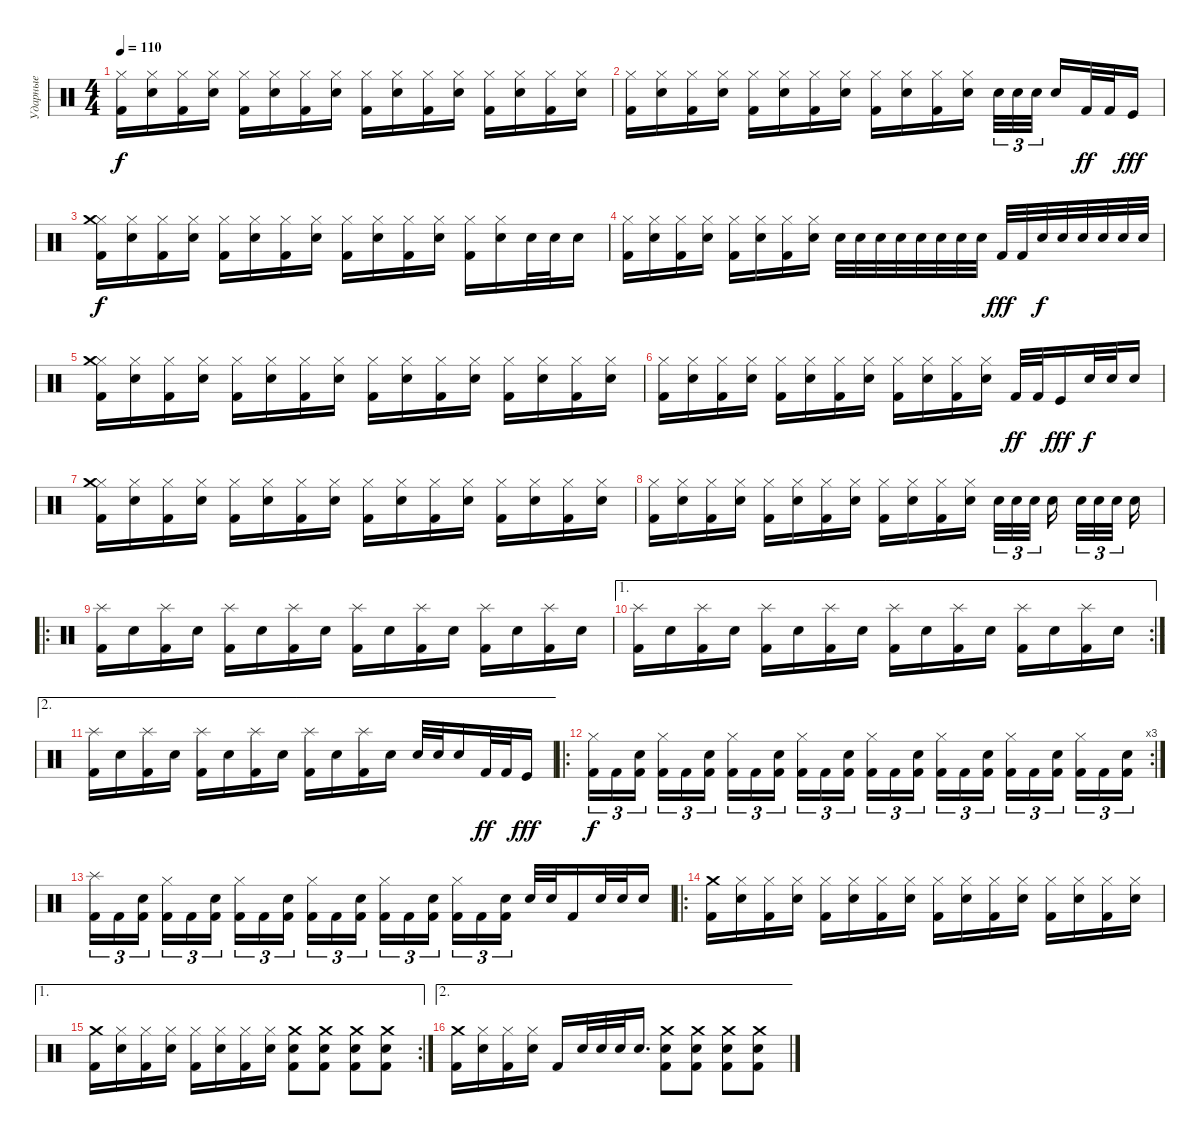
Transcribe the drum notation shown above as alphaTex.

\track ("Ударные" "Ударные") {instrument percussion}
\staff {score}
\articulation defaults
\ts (4 4)
\tempo 110
\clef neutral
\ks c
("Hi-Hat (closed)" "Kick (hit) 2").16{dy f} ("Hi-Hat (closed)" "Electric Snare (hit)").16 ("Hi-Hat (closed)" "Kick (hit) 2").16 ("Hi-Hat (closed)" "Electric Snare (hit)").16 ("Hi-Hat (closed)" "Kick (hit) 2").16 ("Hi-Hat (closed)" "Electric Snare (hit)").16 ("Hi-Hat (closed)" "Kick (hit) 2").16 ("Hi-Hat (closed)" "Electric Snare (hit)").16 ("Hi-Hat (closed)" "Kick (hit) 2").16 ("Hi-Hat (closed)" "Electric Snare (hit)").16 ("Hi-Hat (closed)" "Kick (hit) 2").16 ("Hi-Hat (closed)" "Electric Snare (hit)").16 ("Hi-Hat (closed)" "Kick (hit) 2").16 ("Hi-Hat (closed)" "Electric Snare (hit)").16 ("Hi-Hat (closed)" "Kick (hit) 2").16 ("Hi-Hat (closed)" "Electric Snare (hit)").16 |
("Hi-Hat (closed)" "Kick (hit) 2").16 ("Hi-Hat (closed)" "Electric Snare (hit)").16 ("Hi-Hat (closed)" "Kick (hit) 2").16 ("Hi-Hat (closed)" "Electric Snare (hit)").16 ("Hi-Hat (closed)" "Kick (hit) 2").16 ("Hi-Hat (closed)" "Electric Snare (hit)").16 ("Hi-Hat (closed)" "Kick (hit) 2").16 ("Hi-Hat (closed)" "Electric Snare (hit)").16 ("Hi-Hat (closed)" "Kick (hit) 2").16 ("Hi-Hat (closed)" "Electric Snare (hit)").16 ("Hi-Hat (closed)" "Kick (hit) 2").16 ("Hi-Hat (closed)" "Electric Snare (hit)").16 "Electric Snare (hit)".32{tu (3 2)} "Electric Snare (hit)".32{tu (3 2)} "Electric Snare (hit)".32{tu (3 2) beam splitsecondary} "Snare (hit) 2".16 "Kick (hit) 2".32{dy ff} "Kick (hit) 2".32 "Kick (hit)".16{dy fff} |
("Hi-Hat (closed)" "Crash medium (hit)" "Kick (hit) 2").16{dy f} ("Hi-Hat (closed)" "Electric Snare (hit)").16 ("Hi-Hat (closed)" "Kick (hit) 2").16 ("Hi-Hat (closed)" "Electric Snare (hit)").16 ("Hi-Hat (closed)" "Kick (hit) 2").16 ("Hi-Hat (closed)" "Electric Snare (hit)").16 ("Hi-Hat (closed)" "Kick (hit) 2").16 ("Hi-Hat (closed)" "Electric Snare (hit)").16 ("Hi-Hat (closed)" "Kick (hit) 2").16 ("Hi-Hat (closed)" "Electric Snare (hit)").16 ("Hi-Hat (closed)" "Kick (hit) 2").16 ("Hi-Hat (closed)" "Electric Snare (hit)").16 ("Hi-Hat (closed)" "Kick (hit) 2").16 ("Hi-Hat (closed)" "Electric Snare (hit)").16 "Electric Snare (hit)".32 "Electric Snare (hit)".32 "Snare (hit) 2".16 |
("Hi-Hat (closed)" "Kick (hit) 2").16 ("Hi-Hat (closed)" "Electric Snare (hit)").16 ("Hi-Hat (closed)" "Kick (hit) 2").16 ("Hi-Hat (closed)" "Electric Snare (hit)").16 ("Hi-Hat (closed)" "Kick (hit) 2").16 ("Hi-Hat (closed)" "Electric Snare (hit)").16 ("Hi-Hat (closed)" "Kick (hit) 2").16 ("Hi-Hat (closed)" "Electric Snare (hit)").16 "Electric Snare (hit)".32 "Electric Snare (hit)".32 "Electric Snare (hit)".32 "Electric Snare (hit)".32 "Electric Snare (hit)".32 "Electric Snare (hit)".32 "Electric Snare (hit)".32 "Electric Snare (hit)".32 "Kick (hit) 2".32{dy fff} "Kick (hit) 2".32 "Electric Snare (hit)".32{dy f} "Electric Snare (hit)".32 "Electric Snare (hit)".32 "Electric Snare (hit)".32 "Electric Snare (hit)".32 "Electric Snare (hit)".32 |
("Hi-Hat (closed)" "Crash medium (hit)" "Kick (hit) 2").16 ("Hi-Hat (closed)" "Electric Snare (hit)").16 ("Hi-Hat (closed)" "Kick (hit) 2").16 ("Hi-Hat (closed)" "Electric Snare (hit)").16 ("Hi-Hat (closed)" "Kick (hit) 2").16 ("Hi-Hat (closed)" "Electric Snare (hit)").16 ("Hi-Hat (closed)" "Kick (hit) 2").16 ("Hi-Hat (closed)" "Electric Snare (hit)").16 ("Hi-Hat (closed)" "Kick (hit) 2").16 ("Hi-Hat (closed)" "Electric Snare (hit)").16 ("Hi-Hat (closed)" "Kick (hit) 2").16 ("Hi-Hat (closed)" "Electric Snare (hit)").16 ("Hi-Hat (closed)" "Kick (hit) 2").16 ("Hi-Hat (closed)" "Electric Snare (hit)").16 ("Hi-Hat (closed)" "Kick (hit) 2").16 ("Hi-Hat (closed)" "Electric Snare (hit)").16 |
("Hi-Hat (closed)" "Kick (hit) 2").16 ("Hi-Hat (closed)" "Electric Snare (hit)").16 ("Hi-Hat (closed)" "Kick (hit) 2").16 ("Hi-Hat (closed)" "Electric Snare (hit)").16 ("Hi-Hat (closed)" "Kick (hit) 2").16 ("Hi-Hat (closed)" "Electric Snare (hit)").16 ("Hi-Hat (closed)" "Kick (hit) 2").16 ("Hi-Hat (closed)" "Electric Snare (hit)").16 ("Hi-Hat (closed)" "Kick (hit) 2").16 ("Hi-Hat (closed)" "Electric Snare (hit)").16 ("Hi-Hat (closed)" "Kick (hit) 2").16 ("Hi-Hat (closed)" "Electric Snare (hit)").16 "Kick (hit) 2".32{dy ff} "Kick (hit) 2".32 "Kick (hit)".16{dy fff} "Electric Snare (hit)".32{dy f} "Electric Snare (hit)".32 "Snare (hit) 2".16 |
("Hi-Hat (closed)" "Crash medium (hit)" "Kick (hit) 2").16 ("Hi-Hat (closed)" "Electric Snare (hit)").16 ("Hi-Hat (closed)" "Kick (hit) 2").16 ("Hi-Hat (closed)" "Electric Snare (hit)").16 ("Hi-Hat (closed)" "Kick (hit) 2").16 ("Hi-Hat (closed)" "Electric Snare (hit)").16 ("Hi-Hat (closed)" "Kick (hit) 2").16 ("Hi-Hat (closed)" "Electric Snare (hit)").16 ("Hi-Hat (closed)" "Kick (hit) 2").16 ("Hi-Hat (closed)" "Electric Snare (hit)").16 ("Hi-Hat (closed)" "Kick (hit) 2").16 ("Hi-Hat (closed)" "Electric Snare (hit)").16 ("Hi-Hat (closed)" "Kick (hit) 2").16 ("Hi-Hat (closed)" "Electric Snare (hit)").16 ("Hi-Hat (closed)" "Kick (hit) 2").16 ("Hi-Hat (closed)" "Electric Snare (hit)").16 |
("Hi-Hat (closed)" "Kick (hit) 2").16 ("Hi-Hat (closed)" "Electric Snare (hit)").16 ("Hi-Hat (closed)" "Kick (hit) 2").16 ("Hi-Hat (closed)" "Electric Snare (hit)").16 ("Hi-Hat (closed)" "Kick (hit) 2").16 ("Hi-Hat (closed)" "Electric Snare (hit)").16 ("Hi-Hat (closed)" "Kick (hit) 2").16 ("Hi-Hat (closed)" "Electric Snare (hit)").16 ("Hi-Hat (closed)" "Kick (hit) 2").16 ("Hi-Hat (closed)" "Electric Snare (hit)").16 ("Hi-Hat (closed)" "Kick (hit) 2").16 ("Hi-Hat (closed)" "Electric Snare (hit)").16 "Electric Snare (hit)".32{tu (3 2)} "Electric Snare (hit)".32{tu (3 2)} "Electric Snare (hit)".32{tu (3 2) beam splitsecondary} "Snare (hit) 2".16{beam splitsecondary} "Snare (hit) 2".32{tu (3 2)} "Snare (hit) 2".32{tu (3 2)} "Snare (hit) 2".32{tu (3 2) beam splitsecondary} "Electric Snare (hit)".16 |
\ro
("Splash (hit)" "Kick (hit) 2").16 "Electric Snare (hit)".16 ("Splash (hit)" "Kick (hit) 2").16 "Electric Snare (hit)".16 ("Splash (hit)" "Kick (hit) 2").16 "Electric Snare (hit)".16 ("Splash (hit)" "Kick (hit) 2").16 "Electric Snare (hit)".16 ("Splash (hit)" "Kick (hit) 2").16 "Electric Snare (hit)".16 ("Splash (hit)" "Kick (hit) 2").16 "Electric Snare (hit)".16 ("Splash (hit)" "Kick (hit) 2").16 "Electric Snare (hit)".16 ("Splash (hit)" "Kick (hit) 2").16 "Electric Snare (hit)".16 |
\ae 1
\rc 2
("Splash (hit)" "Kick (hit) 2").16 "Electric Snare (hit)".16 ("Splash (hit)" "Kick (hit) 2").16 "Electric Snare (hit)".16 ("Splash (hit)" "Kick (hit) 2").16 "Electric Snare (hit)".16 ("Splash (hit)" "Kick (hit) 2").16 "Electric Snare (hit)".16 ("Splash (hit)" "Kick (hit) 2").16 "Electric Snare (hit)".16 ("Splash (hit)" "Kick (hit) 2").16 "Electric Snare (hit)".16 ("Splash (hit)" "Kick (hit) 2").16 "Electric Snare (hit)".16 ("Splash (hit)" "Kick (hit) 2").16 "Electric Snare (hit)".16 |
\ae 2
("Splash (hit)" "Kick (hit) 2").16 "Electric Snare (hit)".16 ("Splash (hit)" "Kick (hit) 2").16 "Electric Snare (hit)".16 ("Splash (hit)" "Kick (hit) 2").16 "Electric Snare (hit)".16 ("Splash (hit)" "Kick (hit) 2").16 "Electric Snare (hit)".16 ("Splash (hit)" "Kick (hit) 2").16 "Electric Snare (hit)".16 ("Splash (hit)" "Kick (hit) 2").16 "Electric Snare (hit)".16 "Electric Snare (hit)".32 "Electric Snare (hit)".32 "Snare (hit) 2".16 "Kick (hit) 2".32{dy ff} "Kick (hit) 2".32 "Kick (hit)".16{dy fff} |
\ro
\rc 3
("Hi-Hat (closed)" "Kick (hit) 2").16{tu (3 2) dy f} "Kick (hit) 2".16{tu (3 2)} ("Electric Snare (hit)" "Kick (hit) 2").16{tu (3 2) beam splitsecondary} ("Hi-Hat (closed)" "Kick (hit) 2").16{tu (3 2)} "Kick (hit) 2".16{tu (3 2)} ("Electric Snare (hit)" "Kick (hit) 2").16{tu (3 2)} ("Hi-Hat (closed)" "Kick (hit) 2").16{tu (3 2)} "Kick (hit) 2".16{tu (3 2)} ("Electric Snare (hit)" "Kick (hit) 2").16{tu (3 2) beam splitsecondary} ("Hi-Hat (closed)" "Kick (hit) 2").16{tu (3 2)} "Kick (hit) 2".16{tu (3 2)} ("Electric Snare (hit)" "Kick (hit) 2").16{tu (3 2)} ("Hi-Hat (closed)" "Kick (hit) 2").16{tu (3 2)} "Kick (hit) 2".16{tu (3 2)} ("Electric Snare (hit)" "Kick (hit) 2").16{tu (3 2) beam splitsecondary} ("Hi-Hat (closed)" "Kick (hit) 2").16{tu (3 2)} "Kick (hit) 2".16{tu (3 2)} ("Electric Snare (hit)" "Kick (hit) 2").16{tu (3 2)} ("Hi-Hat (closed)" "Kick (hit) 2").16{tu (3 2)} "Kick (hit) 2".16{tu (3 2)} ("Electric Snare (hit)" "Kick (hit) 2").16{tu (3 2) beam splitsecondary} ("Hi-Hat (closed)" "Kick (hit) 2").16{tu (3 2)} "Kick (hit) 2".16{tu (3 2)} ("Electric Snare (hit)" "Kick (hit) 2").16{tu (3 2)} |
("Splash (hit)" "Kick (hit) 2").16{tu (3 2)} "Kick (hit) 2".16{tu (3 2)} ("Electric Snare (hit)" "Kick (hit) 2").16{tu (3 2) beam splitsecondary} ("Hi-Hat (closed)" "Kick (hit) 2").16{tu (3 2)} "Kick (hit) 2".16{tu (3 2)} ("Electric Snare (hit)" "Kick (hit) 2").16{tu (3 2)} ("Hi-Hat (closed)" "Kick (hit) 2").16{tu (3 2)} "Kick (hit) 2".16{tu (3 2)} ("Electric Snare (hit)" "Kick (hit) 2").16{tu (3 2) beam splitsecondary} ("Hi-Hat (closed)" "Kick (hit) 2").16{tu (3 2)} "Kick (hit) 2".16{tu (3 2)} ("Electric Snare (hit)" "Kick (hit) 2").16{tu (3 2)} ("Hi-Hat (closed)" "Kick (hit) 2").16{tu (3 2)} "Kick (hit) 2".16{tu (3 2)} ("Electric Snare (hit)" "Kick (hit) 2").16{tu (3 2) beam splitsecondary} ("Hi-Hat (closed)" "Kick (hit) 2").16{tu (3 2)} "Kick (hit) 2".16{tu (3 2)} ("Electric Snare (hit)" "Kick (hit) 2").16{tu (3 2)} "Electric Snare (hit)".32 "Electric Snare (hit)".32 "Kick (hit) 2".16 "Snare (hit) 2".32 "Snare (hit) 2".32 "Electric Snare (hit)".16 |
\ro
("Crash medium (hit)" "Kick (hit) 2").16 ("Hi-Hat (closed)" "Electric Snare (hit)").16 ("Hi-Hat (closed)" "Kick (hit) 2").16 ("Hi-Hat (closed)" "Electric Snare (hit)").16 ("Hi-Hat (closed)" "Kick (hit) 2").16 ("Hi-Hat (closed)" "Electric Snare (hit)").16 ("Hi-Hat (closed)" "Kick (hit) 2").16 ("Hi-Hat (closed)" "Electric Snare (hit)").16 ("Hi-Hat (closed)" "Kick (hit) 2").16 ("Hi-Hat (closed)" "Electric Snare (hit)").16 ("Hi-Hat (closed)" "Kick (hit) 2").16 ("Hi-Hat (closed)" "Electric Snare (hit)").16 ("Hi-Hat (closed)" "Kick (hit) 2").16 ("Hi-Hat (closed)" "Electric Snare (hit)").16 ("Hi-Hat (closed)" "Kick (hit) 2").16 ("Hi-Hat (closed)" "Electric Snare (hit)").16 |
\ae 1
\rc 2
("Crash medium (hit)" "Kick (hit) 2").16 ("Hi-Hat (closed)" "Electric Snare (hit)").16 ("Hi-Hat (closed)" "Kick (hit) 2").16 ("Hi-Hat (closed)" "Electric Snare (hit)").16 ("Hi-Hat (closed)" "Kick (hit) 2").16 ("Hi-Hat (closed)" "Electric Snare (hit)").16 ("Hi-Hat (closed)" "Kick (hit) 2").16 ("Hi-Hat (closed)" "Electric Snare (hit)").16 ("Crash medium (hit)" "Electric Snare (hit)" "Kick (hit) 2").8 ("Crash medium (hit)" "Electric Snare (hit)" "Kick (hit) 2").8 ("Crash medium (hit)" "Electric Snare (hit)" "Kick (hit) 2").8 ("Crash medium (hit)" "Electric Snare (hit)" "Kick (hit) 2").8 |
\ae 2
("Crash medium (hit)" "Kick (hit) 2").16 ("Hi-Hat (closed)" "Electric Snare (hit)").16 ("Hi-Hat (closed)" "Kick (hit) 2").16 ("Hi-Hat (closed)" "Electric Snare (hit)").16 "Kick (hit) 2".16 "Electric Snare (hit)".32 "Electric Snare (hit)".32 "Snare (hit) 2".32 "Snare (hit) 2".16{d} ("Crash medium (hit)" "Electric Snare (hit)" "Kick (hit) 2").8 ("Crash medium (hit)" "Electric Snare (hit)" "Kick (hit) 2").8 ("Crash medium (hit)" "Electric Snare (hit)" "Kick (hit) 2").8 ("Crash medium (hit)" "Electric Snare (hit)" "Kick (hit) 2").8
